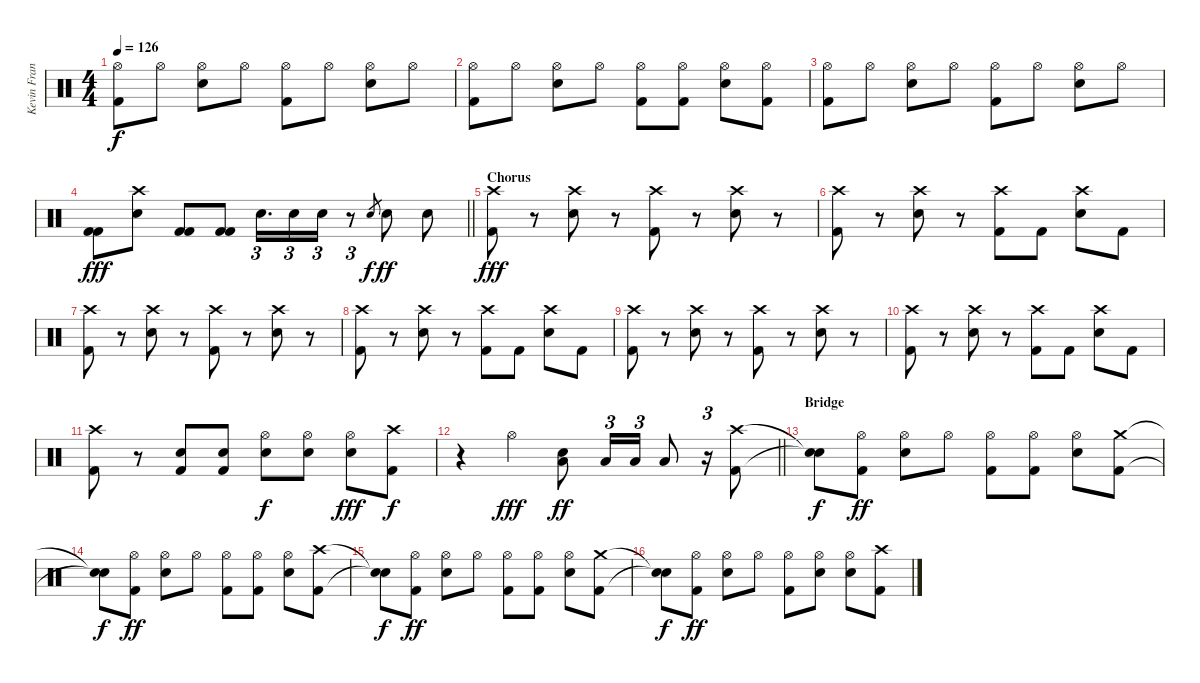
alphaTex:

\track ("Kevin Frank" "Kevin Fran") {instrument percussion}
\staff
\articulation defaults
\ts (4 4)
\tempo 126
\clef neutral
\ks c
("Hi-Hat (open)" "Kick (hit) 2").8{dy f} "Hi-Hat (open)".8 ("Hi-Hat (open)" "Snare (hit) 2").8 "Hi-Hat (open)".8 ("Hi-Hat (open)" "Kick (hit) 2").8 "Hi-Hat (open)".8 ("Hi-Hat (open)" "Snare (hit) 2").8 "Hi-Hat (open)".8 |
("Hi-Hat (open)" "Kick (hit) 2").8 "Hi-Hat (open)".8 ("Hi-Hat (open)" "Snare (hit) 2").8 "Hi-Hat (open)".8 ("Hi-Hat (open)" "Kick (hit) 2").8 ("Hi-Hat (open)" "Kick (hit) 2").8 ("Hi-Hat (open)" "Snare (hit) 2").8 ("Hi-Hat (open)" "Kick (hit) 2").8 |
("Hi-Hat (open)" "Kick (hit) 2").8 "Hi-Hat (open)".8 ("Hi-Hat (open)" "Snare (hit) 2").8 "Hi-Hat (open)".8 ("Hi-Hat (open)" "Kick (hit) 2").8 "Hi-Hat (open)".8 ("Hi-Hat (open)" "Snare (hit) 2").8 "Hi-Hat (open)".8 |
\barLineRight lightlight
("Kick (hit) 2" "Kick (hit) 2").8{dy fff} ("Crash high (hit)" "Snare (hit) 2").8 ("Kick (hit) 2" "Kick (hit) 2").8 ("Kick (hit) 2" "Kick (hit) 2").8 "Snare (hit) 2".16{d tu (3 2)} "Snare (hit) 2".16{tu (3 2)} "Snare (hit) 2".16{tu (3 2)} r.8{tu (3 2)} "Snare (hit) 2".8{gr dy f} "Snare (hit) 2".8{dy ff} "Snare (hit) 2".8 |
\section ("" "Chorus")
("Crash high (hit)" "Kick (hit) 2").8{dy fff} r.8 ("Crash high (hit)" "Snare (hit) 2").8 r.8 ("Crash high (hit)" "Kick (hit) 2").8 r.8 ("Crash high (hit)" "Snare (hit) 2").8 r.8 |
("Crash high (hit)" "Kick (hit) 2").8 r.8 ("Crash high (hit)" "Snare (hit) 2").8 r.8 ("Crash high (hit)" "Kick (hit) 2").8 "Kick (hit) 2".8 ("Crash high (hit)" "Snare (hit) 2").8 "Kick (hit) 2".8 |
("Crash high (hit)" "Kick (hit) 2").8 r.8 ("Crash high (hit)" "Snare (hit) 2").8 r.8 ("Crash high (hit)" "Kick (hit) 2").8 r.8 ("Crash high (hit)" "Snare (hit) 2").8 r.8 |
("Crash high (hit)" "Kick (hit) 2").8 r.8 ("Crash high (hit)" "Snare (hit) 2").8 r.8 ("Crash high (hit)" "Kick (hit) 2").8 "Kick (hit) 2".8 ("Crash high (hit)" "Snare (hit) 2").8 "Kick (hit) 2".8 |
("Crash high (hit)" "Kick (hit) 2").8 r.8 ("Crash high (hit)" "Snare (hit) 2").8 r.8 ("Crash high (hit)" "Kick (hit) 2").8 r.8 ("Crash high (hit)" "Snare (hit) 2").8 r.8 |
("Crash high (hit)" "Kick (hit) 2").8 r.8 ("Crash high (hit)" "Snare (hit) 2").8 r.8 ("Crash high (hit)" "Kick (hit) 2").8 "Kick (hit) 2".8 ("Crash high (hit)" "Snare (hit) 2").8 "Kick (hit) 2".8 |
("Crash high (hit)" "Kick (hit) 2").8 r.8 ("Snare (hit) 2" "Kick (hit) 2").8 ("Snare (hit) 2" "Kick (hit) 2").8 ("Hi-Hat (open)" "Snare (hit) 2").8{dy f} ("Hi-Hat (open)" "Snare (hit) 2").8 ("Hi-Hat (open)" "Snare (hit) 2").8{dy fff} ("Crash high (hit)" "Kick (hit) 2").8{dy f} |
\barLineRight lightlight
r.4 "Hi-Hat (open)".4{dy fff} ("Low Tom (hit)" "Snare (hit) 2").8{dy ff} "Low Tom (hit)".16{tu (3 2)} "Low Tom (hit)".16{tu (3 2)} "Low Tom (hit)".8 r.16{tu (3 2)} ("Crash high (hit)" "Kick (hit) 2").8 |
\section ("" "Bridge")
("Snare (hit)"{t} "Snare (hit)"{t}).8{dy f} ("Hi-Hat (open)" "Kick (hit) 2").8{dy ff} ("Hi-Hat (open)" "Snare (hit) 2").8 "Hi-Hat (open)".8 ("Hi-Hat (open)" "Kick (hit) 2").8 ("Hi-Hat (open)" "Kick (hit) 2").8 ("Hi-Hat (open)" "Snare (hit) 2").8 ("Crash medium (hit)" "Kick (hit) 2").8 |
("Snare (hit)"{t} "Snare (hit)"{t}).8{dy f} ("Hi-Hat (open)" "Kick (hit) 2").8{dy ff} ("Hi-Hat (open)" "Snare (hit) 2").8 "Hi-Hat (open)".8 ("Hi-Hat (open)" "Kick (hit) 2").8 ("Hi-Hat (open)" "Kick (hit) 2").8 ("Hi-Hat (open)" "Snare (hit) 2").8 ("Crash high (hit)" "Kick (hit) 2").8 |
("Snare (hit)"{t} "Snare (hit)"{t}).8{dy f} ("Hi-Hat (open)" "Kick (hit) 2").8{dy ff} ("Hi-Hat (open)" "Snare (hit) 2").8 "Hi-Hat (open)".8 ("Hi-Hat (open)" "Kick (hit) 2").8 ("Hi-Hat (open)" "Kick (hit) 2").8 ("Hi-Hat (open)" "Snare (hit) 2").8 ("Crash medium (hit)" "Kick (hit) 2").8 |
("Snare (hit)"{t} "Snare (hit)"{t}).8{dy f} ("Hi-Hat (open)" "Kick (hit) 2").8{dy ff} ("Hi-Hat (open)" "Snare (hit) 2").8 "Hi-Hat (open)".8 ("Hi-Hat (open)" "Kick (hit) 2").8 ("Hi-Hat (open)" "Snare (hit) 2").8 ("Hi-Hat (open)" "Snare (hit) 2").8 ("Crash high (hit)" "Kick (hit) 2").8
